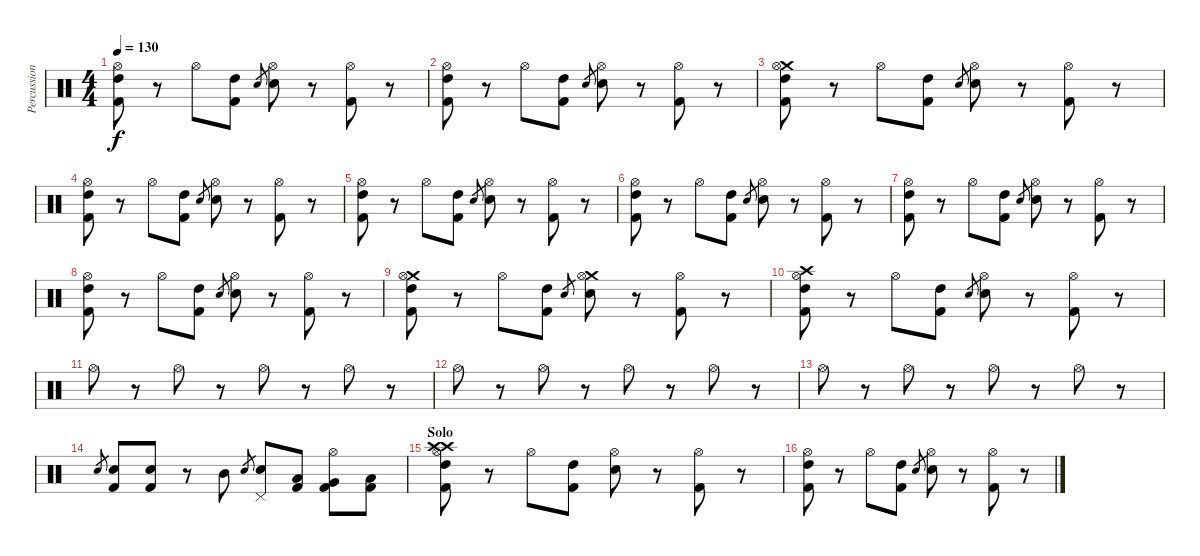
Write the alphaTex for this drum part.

\track ("Percussion" "Percussion") {instrument percussion}
\staff {score}
\articulation defaults
\ts (4 4)
\tempo 130
\clef neutral
\ks c
("Hi-Hat (open)" "High Tom (hit)" "Kick (hit) 2").8{dy f} r.8 "Hi-Hat (open)".8 ("High Tom (hit)" "Kick (hit) 2").8 "Snare (hit) 2".8{gr} ("Hi-Hat (open)" "Snare (hit) 2").8 r.8 ("Hi-Hat (open)" "Kick (hit) 2").8 r.8 |
("Hi-Hat (open)" "High Tom (hit)" "Kick (hit) 2").8 r.8 "Hi-Hat (open)".8 ("High Tom (hit)" "Kick (hit) 2").8 "Snare (hit) 2".8{gr} ("Hi-Hat (open)" "Snare (hit) 2").8 r.8 ("Hi-Hat (open)" "Kick (hit) 2").8 r.8 |
("Crash medium (hit)" "Hi-Hat (open)" "High Tom (hit)" "Kick (hit) 2").8 r.8 "Hi-Hat (open)".8 ("High Tom (hit)" "Kick (hit) 2").8 "Snare (hit) 2".8{gr} ("Hi-Hat (open)" "Snare (hit) 2").8 r.8 ("Hi-Hat (open)" "Kick (hit) 2").8 r.8 |
("Hi-Hat (open)" "High Tom (hit)" "Kick (hit) 2").8 r.8 "Hi-Hat (open)".8 ("High Tom (hit)" "Kick (hit) 2").8 "Snare (hit) 2".8{gr} ("Hi-Hat (open)" "Snare (hit) 2").8 r.8 ("Hi-Hat (open)" "Kick (hit) 2").8 r.8 |
("Hi-Hat (open)" "High Tom (hit)" "Kick (hit) 2").8 r.8 "Hi-Hat (open)".8 ("High Tom (hit)" "Kick (hit) 2").8 "Snare (hit) 2".8{gr} ("Hi-Hat (open)" "Snare (hit) 2").8 r.8 ("Hi-Hat (open)" "Kick (hit) 2").8 r.8 |
("Hi-Hat (open)" "High Tom (hit)" "Kick (hit) 2").8 r.8 "Hi-Hat (open)".8 ("High Tom (hit)" "Kick (hit) 2").8 "Snare (hit) 2".8{gr} ("Hi-Hat (open)" "Snare (hit) 2").8 r.8 ("Hi-Hat (open)" "Kick (hit) 2").8 r.8 |
("Hi-Hat (open)" "High Tom (hit)" "Kick (hit) 2").8 r.8 "Hi-Hat (open)".8 ("High Tom (hit)" "Kick (hit) 2").8 "Snare (hit) 2".8{gr} ("Hi-Hat (open)" "Snare (hit) 2").8 r.8 ("Hi-Hat (open)" "Kick (hit) 2").8 r.8 |
("Hi-Hat (open)" "High Tom (hit)" "Kick (hit) 2").8 r.8 "Hi-Hat (open)".8 ("High Tom (hit)" "Kick (hit) 2").8 "Snare (hit) 2".8{gr} ("Hi-Hat (open)" "Snare (hit) 2").8 r.8 ("Hi-Hat (open)" "Kick (hit) 2").8 r.8 |
("Crash medium (hit)" "Hi-Hat (open)" "High Tom (hit)" "Kick (hit) 2").8 r.8 "Hi-Hat (open)".8 ("High Tom (hit)" "Kick (hit) 2").8 "Snare (hit) 2".8{gr} ("Crash medium (hit)" "Hi-Hat (open)" "Snare (hit) 2").8 r.8 ("Hi-Hat (open)" "Kick (hit) 2").8 r.8 |
("Crash high (hit)" "Hi-Hat (open)" "High Tom (hit)" "Kick (hit) 2").8 r.8 "Hi-Hat (open)".8 ("High Tom (hit)" "Kick (hit) 2").8 "Snare (hit) 2".8{gr} ("Hi-Hat (open)" "Snare (hit) 2").8 r.8 ("Hi-Hat (open)" "Kick (hit) 2").8 r.8 |
"Hi-Hat (open)".8 r.8 "Hi-Hat (open)".8 r.8 "Hi-Hat (open)".8 r.8 "Hi-Hat (open)".8 r.8 |
"Hi-Hat (open)".8 r.8 "Hi-Hat (open)".8 r.8 "Hi-Hat (open)".8 r.8 "Hi-Hat (open)".8 r.8 |
"Hi-Hat (open)".8 r.8 "Hi-Hat (open)".8 r.8 "Hi-Hat (open)".8 r.8 "Hi-Hat (open)".8 r.8 |
"Snare (hit) 2".8{gr} ("Snare (hit) 2" "Kick (hit) 2").8 ("Snare (hit) 2" "Kick (hit) 2").8 r.8 "Mid Tom (hit)".8 "Snare (hit) 2".8{gr} ("Pedal Hi-Hat (hit)" "Snare (hit) 2").8 ("Low Tom (hit)" "Kick (hit) 2").8 ("Hi-Hat (open)" "Very Low Tom (hit)" "Kick (hit) 2").8 ("Low Floor Tom (hit)" "Kick (hit) 2").8 |
\section ("" "Solo")
("Crash high (hit)" "Hi-Hat (open)" "Crash high (hit)" "High Tom (hit)" "Kick (hit) 2").8 r.8 "Hi-Hat (open)".8 ("High Tom (hit)" "Kick (hit) 2").8 ("Hi-Hat (open)" "Snare (hit) 2").8 r.8 ("Hi-Hat (open)" "Kick (hit) 2").8 r.8 |
("Hi-Hat (open)" "High Tom (hit)" "Kick (hit) 2").8 r.8 "Hi-Hat (open)".8 ("High Tom (hit)" "Kick (hit) 2").8 "Snare (hit) 2".8{gr} ("Hi-Hat (open)" "Snare (hit) 2").8 r.8 ("Hi-Hat (open)" "Kick (hit) 2").8 r.8
